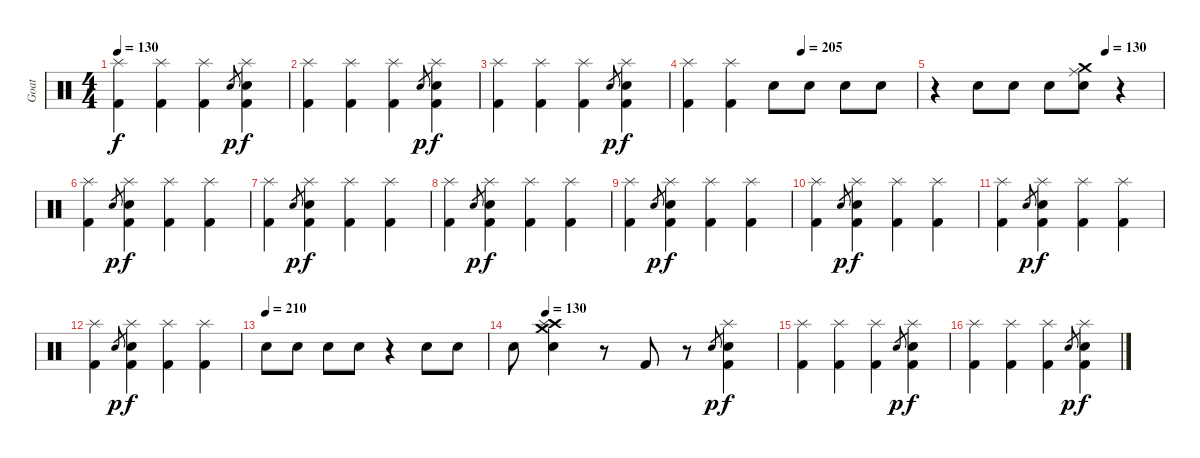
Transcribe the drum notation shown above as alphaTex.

\track ("Goat" "Goat") {instrument percussion}
\staff {score}
\articulation defaults
\ts (4 4)
\tempo 130
\clef neutral
\ks c
("Splash (hit)" "Kick (hit) 2").4{dy f} ("Splash (hit)" "Kick (hit) 2").4 ("Splash (hit)" "Kick (hit) 2").4 "Snare (hit) 2".8{gr dy p} ("Splash (hit)" "Snare (hit) 2" "Kick (hit) 2").4{dy f} |
("Splash (hit)" "Kick (hit) 2").4 ("Splash (hit)" "Kick (hit) 2").4 ("Splash (hit)" "Kick (hit) 2").4 "Snare (hit) 2".8{gr dy p} ("Splash (hit)" "Snare (hit) 2" "Kick (hit) 2").4{dy f} |
("Splash (hit)" "Kick (hit) 2").4 ("Splash (hit)" "Kick (hit) 2").4 ("Splash (hit)" "Kick (hit) 2").4 "Snare (hit) 2".8{gr dy p} ("Splash (hit)" "Snare (hit) 2" "Kick (hit) 2").4{dy f} |
\tempo (205 0.5)
("Splash (hit)" "Kick (hit) 2").4 ("Splash (hit)" "Kick (hit) 2").4 "Snare (hit) 2".8 "Snare (hit) 2".8 "Snare (hit) 2".8 "Snare (hit) 2".8 |
\tempo (130 0.75)
r.4 "Snare (hit) 2".8 "Snare (hit) 2".8 "Snare (hit) 2".8 ("Crash medium (hit)" "Ride (middle)" "Snare (hit) 2").8 r.4 |
("Splash (hit)" "Kick (hit) 2").4 "Snare (hit) 2".8{gr dy p} ("Splash (hit)" "Snare (hit) 2" "Kick (hit) 2").4{dy f} ("Splash (hit)" "Kick (hit) 2").4 ("Splash (hit)" "Kick (hit) 2").4 |
("Splash (hit)" "Kick (hit) 2").4 "Snare (hit) 2".8{gr dy p} ("Splash (hit)" "Snare (hit) 2" "Kick (hit) 2").4{dy f} ("Splash (hit)" "Kick (hit) 2").4 ("Splash (hit)" "Kick (hit) 2").4 |
("Splash (hit)" "Kick (hit) 2").4 "Snare (hit) 2".8{gr dy p} ("Splash (hit)" "Snare (hit) 2" "Kick (hit) 2").4{dy f} ("Splash (hit)" "Kick (hit) 2").4 ("Splash (hit)" "Kick (hit) 2").4 |
("Splash (hit)" "Kick (hit) 2").4 "Snare (hit) 2".8{gr dy p} ("Splash (hit)" "Snare (hit) 2" "Kick (hit) 2").4{dy f} ("Splash (hit)" "Kick (hit) 2").4 ("Splash (hit)" "Kick (hit) 2").4 |
("Splash (hit)" "Kick (hit) 2").4 "Snare (hit) 2".8{gr dy p} ("Splash (hit)" "Snare (hit) 2" "Kick (hit) 2").4{dy f} ("Splash (hit)" "Kick (hit) 2").4 ("Splash (hit)" "Kick (hit) 2").4 |
("Splash (hit)" "Kick (hit) 2").4 "Snare (hit) 2".8{gr dy p} ("Splash (hit)" "Snare (hit) 2" "Kick (hit) 2").4{dy f} ("Splash (hit)" "Kick (hit) 2").4 ("Splash (hit)" "Kick (hit) 2").4 |
("Splash (hit)" "Kick (hit) 2").4 "Snare (hit) 2".8{gr dy p} ("Splash (hit)" "Snare (hit) 2" "Kick (hit) 2").4{dy f} ("Splash (hit)" "Kick (hit) 2").4 ("Splash (hit)" "Kick (hit) 2").4 |
\tempo (210)
"Snare (hit) 2".8 "Snare (hit) 2".8 "Snare (hit) 2".8 "Snare (hit) 2".8 r.4 "Snare (hit) 2".8 "Snare (hit) 2".8 |
\tempo (130 0.125)
"Snare (hit) 2".8 ("Crash high (hit)" "Splash (hit)" "Crash medium (hit)" "Snare (hit) 2").4 r.8 "Kick (hit) 2".8 r.8 "Snare (hit) 2".8{gr dy p} ("Splash (hit)" "Snare (hit) 2" "Kick (hit) 2").4{dy f} |
("Splash (hit)" "Kick (hit) 2").4 ("Splash (hit)" "Kick (hit) 2").4 ("Splash (hit)" "Kick (hit) 2").4 "Snare (hit) 2".8{gr dy p} ("Splash (hit)" "Snare (hit) 2" "Kick (hit) 2").4{dy f} |
("Splash (hit)" "Kick (hit) 2").4 ("Splash (hit)" "Kick (hit) 2").4 ("Splash (hit)" "Kick (hit) 2").4 "Snare (hit) 2".8{gr dy p} ("Splash (hit)" "Snare (hit) 2" "Kick (hit) 2").4{dy f}
